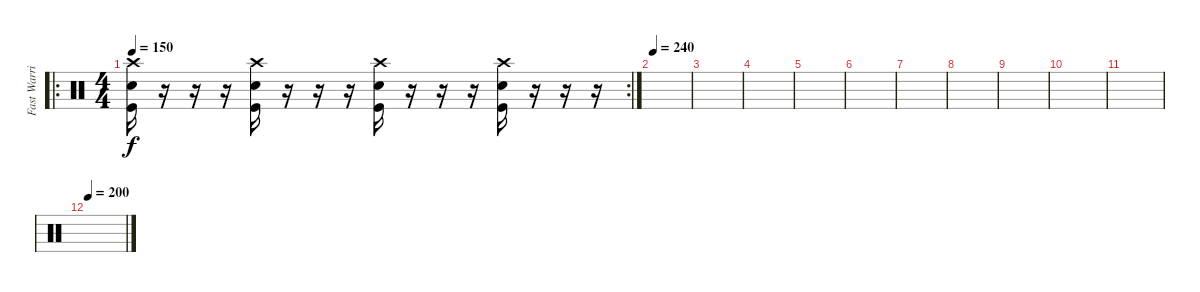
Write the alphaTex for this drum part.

\track ("Fast Warrior" "Fast Warri") {instrument percussion}
\staff {score}
\articulation defaults
\ro
\rc 2
\ts (4 4)
\tempo 150
\clef neutral
\ks c
("Crash high (hit)" "Electric Snare (hit)" "Kick (hit)").16{dy f} r.16 r.16 r.16 ("Crash high (hit)" "Electric Snare (hit)" "Kick (hit)").16 r.16 r.16 r.16 ("Crash high (hit)" "Electric Snare (hit)" "Kick (hit)").16 r.16 r.16 r.16 ("Crash high (hit)" "Electric Snare (hit)" "Kick (hit)").16 r.16 r.16 r.16 |
\tempo 240
|
|
|
|
|
|
|
|
|
|
\tempo 200
